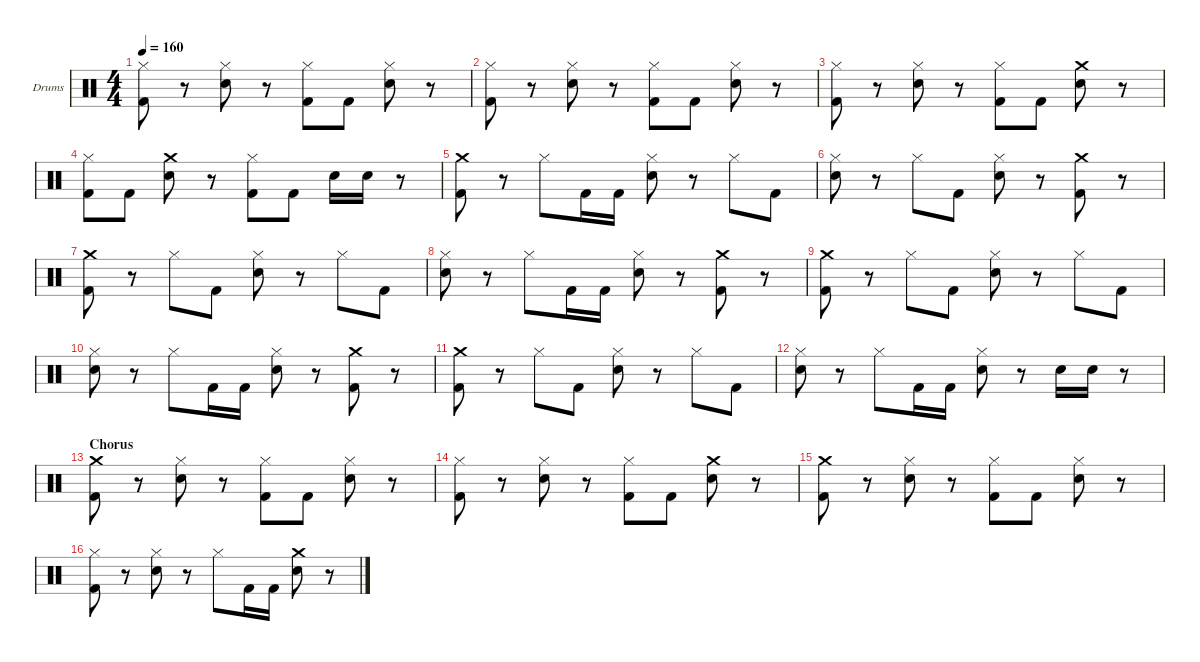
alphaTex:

\hideDynamics
\bracketExtendMode nobrackets
\firstSystemTrackNameOrientation horizontal
\otherSystemsTrackNameOrientation horizontal
\track ("Drumkit" "Drums") {instrument percussion}
\staff {score}
\articulation defaults
\ts (4 4)
\tempo 160
\clef neutral
\ks c
("Kick (hit) 2" "Hi-Hat (closed)").8{dy f} r.8 ("Snare (hit) 2" "Hi-Hat (closed)").8 r.8 ("Kick (hit) 2" "Hi-Hat (closed)").8 "Kick (hit) 2".8 ("Snare (hit) 2" "Hi-Hat (closed)").8 r.8 |
("Kick (hit) 2" "Hi-Hat (closed)").8 r.8 ("Snare (hit) 2" "Hi-Hat (closed)").8 r.8 ("Kick (hit) 2" "Hi-Hat (closed)").8 "Kick (hit) 2".8 ("Snare (hit) 2" "Hi-Hat (closed)").8 r.8 |
("Kick (hit) 2" "Hi-Hat (closed)").8 r.8 ("Snare (hit) 2" "Hi-Hat (closed)").8 r.8 ("Kick (hit) 2" "Hi-Hat (closed)").8 "Kick (hit) 2".8 ("Crash medium (hit)" "Snare (hit) 2").8 r.8 |
("Kick (hit) 2" "Hi-Hat (closed)").8 "Kick (hit) 2".8 ("Crash medium (hit)" "Snare (hit) 2").8 r.8 ("Kick (hit) 2" "Hi-Hat (closed)").8 "Kick (hit) 2".8 "Snare (hit) 2".16 "Snare (hit) 2".16 r.8 |
("Kick (hit) 2" "Crash medium (hit)").8 r.8 "Hi-Hat (closed)".8 "Kick (hit) 2".16 "Kick (hit) 2".16 ("Hi-Hat (closed)" "Snare (hit) 2").8 r.8 "Hi-Hat (closed)".8 "Kick (hit) 2".8 |
("Hi-Hat (closed)" "Snare (hit) 2").8 r.8 "Hi-Hat (closed)".8 "Kick (hit) 2".8 ("Snare (hit) 2" "Hi-Hat (closed)").8 r.8 ("Crash medium (hit)" "Kick (hit) 2").8 r.8 |
("Kick (hit) 2" "Crash medium (hit)").8 r.8 "Hi-Hat (closed)".8 "Kick (hit) 2".8 ("Snare (hit) 2" "Hi-Hat (closed)").8 r.8 "Hi-Hat (closed)".8 "Kick (hit) 2".8 |
("Hi-Hat (closed)" "Snare (hit) 2").8 r.8 "Hi-Hat (closed)".8 "Kick (hit) 2".16 "Kick (hit) 2".16 ("Snare (hit) 2" "Hi-Hat (closed)").8 r.8 ("Crash medium (hit)" "Kick (hit) 2").8 r.8 |
("Kick (hit) 2" "Crash medium (hit)").8 r.8 "Hi-Hat (closed)".8 "Kick (hit) 2".8 ("Snare (hit) 2" "Hi-Hat (closed)").8 r.8 "Hi-Hat (closed)".8 "Kick (hit) 2".8 |
("Hi-Hat (closed)" "Snare (hit) 2").8 r.8 "Hi-Hat (closed)".8 "Kick (hit) 2".16 "Kick (hit) 2".16 ("Snare (hit) 2" "Hi-Hat (closed)").8 r.8 ("Crash medium (hit)" "Kick (hit) 2").8 r.8 |
("Kick (hit) 2" "Crash medium (hit)").8 r.8 "Hi-Hat (closed)".8 "Kick (hit) 2".8 ("Snare (hit) 2" "Hi-Hat (closed)").8 r.8 "Hi-Hat (closed)".8 "Kick (hit) 2".8 |
("Hi-Hat (closed)" "Snare (hit) 2").8 r.8 "Hi-Hat (closed)".8 "Kick (hit) 2".16 "Kick (hit) 2".16 ("Snare (hit) 2" "Hi-Hat (closed)").8 r.8 "Snare (hit) 2".16 "Snare (hit) 2".16 r.8 |
\section ("" "Chorus")
("Kick (hit) 2" "Crash medium (hit)").8 r.8 ("Hi-Hat (closed)" "Snare (hit) 2").8 r.8 ("Hi-Hat (closed)" "Kick (hit) 2").8 "Kick (hit) 2".8 ("Snare (hit) 2" "Hi-Hat (closed)").8 r.8 |
("Kick (hit) 2" "Hi-Hat (closed)").8 r.8 ("Snare (hit) 2" "Hi-Hat (closed)").8 r.8 ("Kick (hit) 2" "Hi-Hat (closed)").8 "Kick (hit) 2".8 ("Crash medium (hit)" "Snare (hit) 2").8 r.8 |
("Kick (hit) 2" "Crash medium (hit)").8 r.8 ("Hi-Hat (closed)" "Snare (hit) 2").8 r.8 ("Kick (hit) 2" "Hi-Hat (closed)").8 "Kick (hit) 2".8 ("Hi-Hat (closed)" "Snare (hit) 2").8 r.8 |
("Kick (hit) 2" "Hi-Hat (closed)").8 r.8 ("Snare (hit) 2" "Hi-Hat (closed)").8 r.8 "Hi-Hat (closed)".8 "Kick (hit) 2".16 "Kick (hit) 2".16 ("Crash medium (hit)" "Snare (hit) 2").8 r.8
